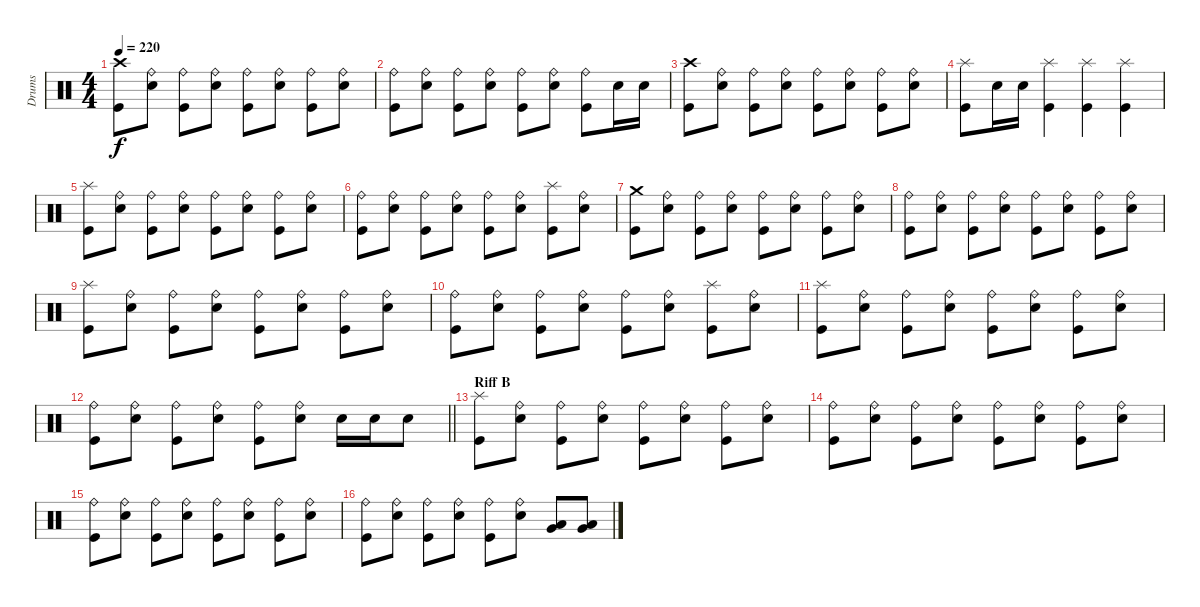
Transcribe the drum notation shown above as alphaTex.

\track ("Drums" "Drums") {instrument percussion}
\staff {score}
\articulation defaults
\ts (4 4)
\tempo 220
\clef neutral
\ks c
("Kick (hit)" "Crash high (hit)").8{dy f} ("Electric Snare (hit)" "Ride (bell)").8 ("Kick (hit)" "Ride (bell)").8 ("Electric Snare (hit)" "Ride (bell)").8 ("Kick (hit)" "Ride (bell)").8 ("Electric Snare (hit)" "Ride (bell)").8 ("Kick (hit)" "Ride (bell)").8 ("Electric Snare (hit)" "Ride (bell)").8 |
("Kick (hit)" "Ride (bell)").8 ("Electric Snare (hit)" "Ride (bell)").8 ("Kick (hit)" "Ride (bell)").8 ("Electric Snare (hit)" "Ride (bell)").8 ("Kick (hit)" "Ride (bell)").8 ("Electric Snare (hit)" "Ride (bell)").8 ("Kick (hit)" "Ride (bell)").8 "Electric Snare (hit)".16 "Electric Snare (hit)".16 |
("Kick (hit)" "Crash high (hit)").8 ("Electric Snare (hit)" "Ride (bell)").8 ("Kick (hit)" "Ride (bell)").8 ("Electric Snare (hit)" "Ride (bell)").8 ("Kick (hit)" "Ride (bell)").8 ("Electric Snare (hit)" "Ride (bell)").8 ("Kick (hit)" "Ride (bell)").8 ("Electric Snare (hit)" "Ride (bell)").8 |
("Kick (hit)" "Splash (hit)").8 "Electric Snare (hit)".16 "Electric Snare (hit)".16 ("Kick (hit)" "Splash (hit)").4 ("Kick (hit)" "Splash (hit)").4 ("Kick (hit)" "Splash (hit)").4 |
("Kick (hit)" "Splash (hit)").8 ("Electric Snare (hit)" "Ride (bell)").8 ("Kick (hit)" "Ride (bell)").8 ("Electric Snare (hit)" "Ride (bell)").8 ("Kick (hit)" "Ride (bell)").8 ("Electric Snare (hit)" "Ride (bell)").8 ("Kick (hit)" "Ride (bell)").8 ("Electric Snare (hit)" "Ride (bell)").8 |
("Kick (hit)" "Ride (bell)").8 ("Electric Snare (hit)" "Ride (bell)").8 ("Kick (hit)" "Ride (bell)").8 ("Electric Snare (hit)" "Ride (bell)").8 ("Kick (hit)" "Ride (bell)").8 ("Electric Snare (hit)" "Ride (bell)").8 ("Kick (hit)" "Splash (hit)").8 ("Electric Snare (hit)" "Ride (bell)").8 |
("Kick (hit)" "Crash medium (hit)").8 ("Electric Snare (hit)" "Ride (bell)").8 ("Kick (hit)" "Ride (bell)").8 ("Electric Snare (hit)" "Ride (bell)").8 ("Kick (hit)" "Ride (bell)").8 ("Electric Snare (hit)" "Ride (bell)").8 ("Kick (hit)" "Ride (bell)").8 ("Electric Snare (hit)" "Ride (bell)").8 |
("Kick (hit)" "Ride (bell)").8 ("Electric Snare (hit)" "Ride (bell)").8 ("Kick (hit)" "Ride (bell)").8 ("Electric Snare (hit)" "Ride (bell)").8 ("Kick (hit)" "Ride (bell)").8 ("Electric Snare (hit)" "Ride (bell)").8 ("Kick (hit)" "Ride (bell)").8 ("Electric Snare (hit)" "Ride (bell)").8 |
("Kick (hit)" "Splash (hit)").8 ("Electric Snare (hit)" "Ride (bell)").8 ("Kick (hit)" "Ride (bell)").8 ("Electric Snare (hit)" "Ride (bell)").8 ("Kick (hit)" "Ride (bell)").8 ("Electric Snare (hit)" "Ride (bell)").8 ("Kick (hit)" "Ride (bell)").8 ("Electric Snare (hit)" "Ride (bell)").8 |
("Kick (hit)" "Ride (bell)").8 ("Electric Snare (hit)" "Ride (bell)").8 ("Kick (hit)" "Ride (bell)").8 ("Electric Snare (hit)" "Ride (bell)").8 ("Kick (hit)" "Ride (bell)").8 ("Electric Snare (hit)" "Ride (bell)").8 ("Kick (hit)" "Splash (hit)").8 ("Electric Snare (hit)" "Ride (bell)").8 |
("Kick (hit)" "Splash (hit)").8 ("Electric Snare (hit)" "Ride (bell)").8 ("Kick (hit)" "Ride (bell)").8 ("Electric Snare (hit)" "Ride (bell)").8 ("Kick (hit)" "Ride (bell)").8 ("Electric Snare (hit)" "Ride (bell)").8 ("Kick (hit)" "Ride (bell)").8 ("Electric Snare (hit)" "Ride (bell)").8 |
\barLineRight lightlight
("Kick (hit)" "Ride (bell)").8 ("Electric Snare (hit)" "Ride (bell)").8 ("Kick (hit)" "Ride (bell)").8 ("Electric Snare (hit)" "Ride (bell)").8 ("Kick (hit)" "Ride (bell)").8 ("Electric Snare (hit)" "Ride (bell)").8 "Electric Snare (hit)".16 "Electric Snare (hit)".16 "Electric Snare (hit)".8 |
\section ("" "Riff B")
("Kick (hit)" "Splash (hit)").8 ("Electric Snare (hit)" "Ride (bell)").8 ("Kick (hit)" "Ride (bell)").8 ("Electric Snare (hit)" "Ride (bell)").8 ("Kick (hit)" "Ride (bell)").8 ("Electric Snare (hit)" "Ride (bell)").8 ("Kick (hit)" "Ride (bell)").8 ("Electric Snare (hit)" "Ride (bell)").8 |
("Kick (hit)" "Ride (bell)").8 ("Electric Snare (hit)" "Ride (bell)").8 ("Kick (hit)" "Ride (bell)").8 ("Electric Snare (hit)" "Ride (bell)").8 ("Kick (hit)" "Ride (bell)").8 ("Electric Snare (hit)" "Ride (bell)").8 ("Kick (hit)" "Ride (bell)").8 ("Electric Snare (hit)" "Ride (bell)").8 |
("Kick (hit)" "Ride (bell)").8 ("Electric Snare (hit)" "Ride (bell)").8 ("Kick (hit)" "Ride (bell)").8 ("Electric Snare (hit)" "Ride (bell)").8 ("Kick (hit)" "Ride (bell)").8 ("Electric Snare (hit)" "Ride (bell)").8 ("Kick (hit)" "Ride (bell)").8 ("Electric Snare (hit)" "Ride (bell)").8 |
("Kick (hit)" "Ride (bell)").8 ("Electric Snare (hit)" "Ride (bell)").8 ("Kick (hit)" "Ride (bell)").8 ("Electric Snare (hit)" "Ride (bell)").8 ("Kick (hit)" "Ride (bell)").8 ("Electric Snare (hit)" "Ride (bell)").8 ("Very Low Tom (hit)" "Low Floor Tom (hit)").8 ("Very Low Tom (hit)" "Low Floor Tom (hit)").8
